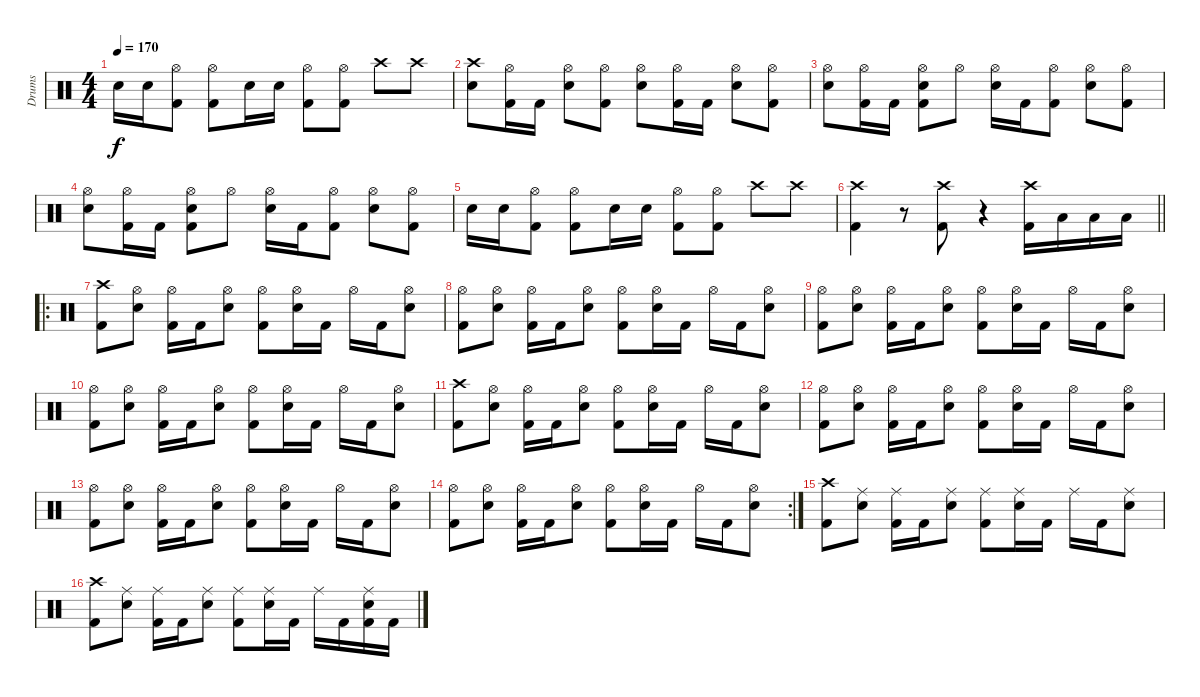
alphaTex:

\track ("Drums" "Drums") {instrument percussion}
\staff {score}
\articulation defaults
\ts (4 4)
\tempo 170
\clef neutral
\ks c "Snare (hit) 2".16{dy f} "Snare (hit) 2".16
("Hi-Hat (open)" "Kick (hit) 2").8 ("Hi-Hat (open)" "Kick (hit) 2").8 "Snare (hit) 2".16 "Snare (hit) 2".16 ("Hi-Hat (open)" "Kick (hit) 2").8 ("Hi-Hat (open)" "Kick (hit) 2").8 "Crash high (hit)".8 "Crash high (hit)".8 |
("Crash high (hit)" "Snare (hit) 2").8 ("Hi-Hat (open)" "Kick (hit) 2").16 "Kick (hit) 2".16 ("Hi-Hat (open)" "Snare (hit) 2").8 ("Hi-Hat (open)" "Kick (hit) 2").8 ("Hi-Hat (open)" "Snare (hit) 2").8 ("Hi-Hat (open)" "Kick (hit) 2").16 "Kick (hit) 2".16 ("Hi-Hat (open)" "Snare (hit) 2").8 ("Hi-Hat (open)" "Kick (hit) 2").8 |
("Hi-Hat (open)" "Snare (hit) 2").8 ("Hi-Hat (open)" "Kick (hit) 2").16 "Kick (hit) 2".16 ("Hi-Hat (open)" "Snare (hit) 2" "Kick (hit) 2").8 "Hi-Hat (open)".8 ("Hi-Hat (open)" "Snare (hit) 2").16 "Kick (hit) 2".16 ("Hi-Hat (open)" "Kick (hit) 2").8 ("Hi-Hat (open)" "Snare (hit) 2").8 ("Hi-Hat (open)" "Kick (hit) 2").8 |
("Hi-Hat (open)" "Snare (hit) 2").8 ("Hi-Hat (open)" "Kick (hit) 2").16 "Kick (hit) 2".16 ("Hi-Hat (open)" "Snare (hit) 2" "Kick (hit) 2").8 "Hi-Hat (open)".8 ("Hi-Hat (open)" "Snare (hit) 2").16 "Kick (hit) 2".16 ("Hi-Hat (open)" "Kick (hit) 2").8 ("Hi-Hat (open)" "Snare (hit) 2").8 ("Hi-Hat (open)" "Kick (hit) 2").8 |
"Snare (hit) 2".16 "Snare (hit) 2".16 ("Hi-Hat (open)" "Kick (hit) 2").8 ("Hi-Hat (open)" "Kick (hit) 2").8 "Snare (hit) 2".16 "Snare (hit) 2".16 ("Hi-Hat (open)" "Kick (hit) 2").8 ("Hi-Hat (open)" "Kick (hit) 2").8 "Crash high (hit)".8 "Crash high (hit)".8 |
\barLineRight lightlight
("Crash high (hit)" "Kick (hit) 2").4 r.8 ("Crash high (hit)" "Kick (hit) 2").8 r.4 ("Crash high (hit)" "Kick (hit) 2").16 "Low Tom (hit)".16 "Low Floor Tom (hit)".16 "Low Floor Tom (hit)".16 |
\ro
("Crash high (hit)" "Kick (hit) 2").8 ("Hi-Hat (open)" "Snare (hit) 2").8 ("Hi-Hat (open)" "Kick (hit) 2").16 "Kick (hit) 2".16 ("Hi-Hat (open)" "Snare (hit) 2").8 ("Hi-Hat (open)" "Kick (hit) 2").8 ("Hi-Hat (open)" "Snare (hit) 2").16 "Kick (hit) 2".16 "Hi-Hat (open)".16 "Kick (hit) 2".16 ("Hi-Hat (open)" "Snare (hit) 2").8 |
("Hi-Hat (open)" "Kick (hit) 2").8 ("Hi-Hat (open)" "Snare (hit) 2").8 ("Hi-Hat (open)" "Kick (hit) 2").16 "Kick (hit) 2".16 ("Hi-Hat (open)" "Snare (hit) 2").8 ("Hi-Hat (open)" "Kick (hit) 2").8 ("Hi-Hat (open)" "Snare (hit) 2").16 "Kick (hit) 2".16 "Hi-Hat (open)".16 "Kick (hit) 2".16 ("Hi-Hat (open)" "Snare (hit) 2").8 |
("Hi-Hat (open)" "Kick (hit) 2").8 ("Hi-Hat (open)" "Snare (hit) 2").8 ("Hi-Hat (open)" "Kick (hit) 2").16 "Kick (hit) 2".16 ("Hi-Hat (open)" "Snare (hit) 2").8 ("Hi-Hat (open)" "Kick (hit) 2").8 ("Hi-Hat (open)" "Snare (hit) 2").16 "Kick (hit) 2".16 "Hi-Hat (open)".16 "Kick (hit) 2".16 ("Hi-Hat (open)" "Snare (hit) 2").8 |
("Hi-Hat (open)" "Kick (hit) 2").8 ("Hi-Hat (open)" "Snare (hit) 2").8 ("Hi-Hat (open)" "Kick (hit) 2").16 "Kick (hit) 2".16 ("Hi-Hat (open)" "Snare (hit) 2").8 ("Hi-Hat (open)" "Kick (hit) 2").8 ("Hi-Hat (open)" "Snare (hit) 2").16 "Kick (hit) 2".16 "Hi-Hat (open)".16 "Kick (hit) 2".16 ("Hi-Hat (open)" "Snare (hit) 2").8 |
("Crash high (hit)" "Kick (hit) 2").8 ("Hi-Hat (open)" "Snare (hit) 2").8 ("Hi-Hat (open)" "Kick (hit) 2").16 "Kick (hit) 2".16 ("Hi-Hat (open)" "Snare (hit) 2").8 ("Hi-Hat (open)" "Kick (hit) 2").8 ("Hi-Hat (open)" "Snare (hit) 2").16 "Kick (hit) 2".16 "Hi-Hat (open)".16 "Kick (hit) 2".16 ("Hi-Hat (open)" "Snare (hit) 2").8 |
("Hi-Hat (open)" "Kick (hit) 2").8 ("Hi-Hat (open)" "Snare (hit) 2").8 ("Hi-Hat (open)" "Kick (hit) 2").16 "Kick (hit) 2".16 ("Hi-Hat (open)" "Snare (hit) 2").8 ("Hi-Hat (open)" "Kick (hit) 2").8 ("Hi-Hat (open)" "Snare (hit) 2").16 "Kick (hit) 2".16 "Hi-Hat (open)".16 "Kick (hit) 2".16 ("Hi-Hat (open)" "Snare (hit) 2").8 |
("Hi-Hat (open)" "Kick (hit) 2").8 ("Hi-Hat (open)" "Snare (hit) 2").8 ("Hi-Hat (open)" "Kick (hit) 2").16 "Kick (hit) 2".16 ("Hi-Hat (open)" "Snare (hit) 2").8 ("Hi-Hat (open)" "Kick (hit) 2").8 ("Hi-Hat (open)" "Snare (hit) 2").16 "Kick (hit) 2".16 "Hi-Hat (open)".16 "Kick (hit) 2".16 ("Hi-Hat (open)" "Snare (hit) 2").8 |
\rc 2
("Hi-Hat (open)" "Kick (hit) 2").8 ("Hi-Hat (open)" "Snare (hit) 2").8 ("Hi-Hat (open)" "Kick (hit) 2").16 "Kick (hit) 2".16 ("Hi-Hat (open)" "Snare (hit) 2").8 ("Hi-Hat (open)" "Kick (hit) 2").8 ("Hi-Hat (open)" "Snare (hit) 2").16 "Kick (hit) 2".16 "Hi-Hat (open)".16 "Kick (hit) 2".16 ("Hi-Hat (open)" "Snare (hit) 2").8 |
("Crash high (hit)" "Kick (hit) 2").8 ("Ride (middle)" "Snare (hit) 2").8 ("Ride (middle)" "Kick (hit) 2").16 "Kick (hit) 2".16 ("Ride (middle)" "Snare (hit) 2").8 ("Ride (middle)" "Kick (hit) 2").8 ("Ride (middle)" "Snare (hit) 2").16 "Kick (hit) 2".16 "Ride (middle)".16 "Kick (hit) 2".16 ("Ride (middle)" "Snare (hit) 2").8 |
("Crash high (hit)" "Kick (hit) 2").8 ("Ride (middle)" "Snare (hit) 2").8 ("Ride (middle)" "Kick (hit) 2").16 "Kick (hit) 2".16 ("Ride (middle)" "Snare (hit) 2").8 ("Ride (middle)" "Kick (hit) 2").8 ("Ride (middle)" "Snare (hit) 2").16 "Kick (hit) 2".16 "Ride (middle)".16 "Kick (hit) 2".16 ("Ride (middle)" "Snare (hit) 2" "Kick (hit) 2").16 "Kick (hit) 2".16
